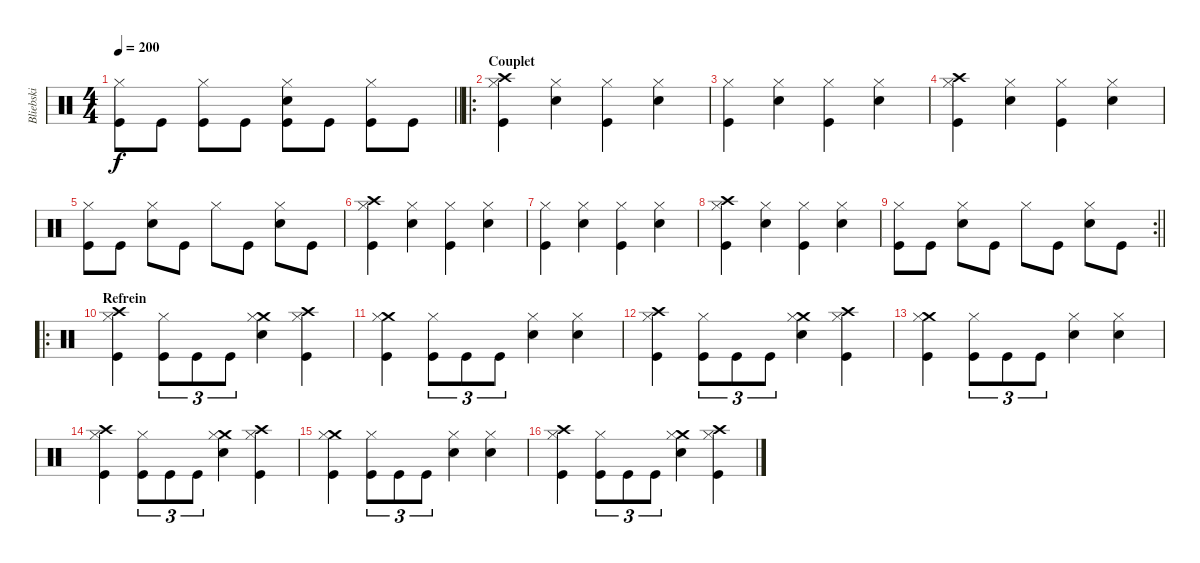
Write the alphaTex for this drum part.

\track ("Bliebski" "Bliebski") {instrument percussion}
\staff {score}
\articulation defaults
\ts (4 4)
\tempo 200
\clef neutral
\barLineRight lightlight
\ks c
("Hi-Hat (closed)" "Kick (hit)").8{dy f} "Kick (hit)".8 ("Hi-Hat (closed)" "Kick (hit)").8 "Kick (hit)".8 ("Hi-Hat (closed)" "Kick (hit)" "Snare (hit) 2").8 "Kick (hit)".8 ("Hi-Hat (closed)" "Kick (hit)").8 "Kick (hit)".8 |
\ro
\section ("" "Couplet")
("Crash high (hit)" "Hi-Hat (closed)" "Kick (hit)").4 ("Hi-Hat (closed)" "Snare (hit) 2").4 ("Hi-Hat (closed)" "Kick (hit)").4 ("Hi-Hat (closed)" "Snare (hit) 2").4 |
("Hi-Hat (closed)" "Kick (hit)").4 ("Hi-Hat (closed)" "Snare (hit) 2").4 ("Hi-Hat (closed)" "Kick (hit)").4 ("Hi-Hat (closed)" "Snare (hit) 2").4 |
("Crash high (hit)" "Hi-Hat (closed)" "Kick (hit)").4 ("Hi-Hat (closed)" "Snare (hit) 2").4 ("Hi-Hat (closed)" "Kick (hit)").4 ("Hi-Hat (closed)" "Snare (hit) 2").4 |
("Hi-Hat (closed)" "Kick (hit)").8 "Kick (hit)".8 ("Hi-Hat (closed)" "Snare (hit) 2").8 "Kick (hit)".8 "Hi-Hat (closed)".8 "Kick (hit)".8 ("Hi-Hat (closed)" "Snare (hit) 2").8 "Kick (hit)".8 |
("Crash high (hit)" "Hi-Hat (closed)" "Kick (hit)").4 ("Hi-Hat (closed)" "Snare (hit) 2").4 ("Hi-Hat (closed)" "Kick (hit)").4 ("Hi-Hat (closed)" "Snare (hit) 2").4 |
("Hi-Hat (closed)" "Kick (hit)").4 ("Hi-Hat (closed)" "Snare (hit) 2").4 ("Hi-Hat (closed)" "Kick (hit)").4 ("Hi-Hat (closed)" "Snare (hit) 2").4 |
("Crash high (hit)" "Hi-Hat (closed)" "Kick (hit)").4 ("Hi-Hat (closed)" "Snare (hit) 2").4 ("Hi-Hat (closed)" "Kick (hit)").4 ("Hi-Hat (closed)" "Snare (hit) 2").4 |
\rc 2
\barLineRight lightlight
("Hi-Hat (closed)" "Kick (hit)").8 "Kick (hit)".8 ("Hi-Hat (closed)" "Snare (hit) 2").8 "Kick (hit)".8 "Hi-Hat (closed)".8 "Kick (hit)".8 ("Hi-Hat (closed)" "Snare (hit) 2").8 "Kick (hit)".8 |
\ro
\section ("" "Refrein")
("Crash high (hit)" "Hi-Hat (closed)" "Kick (hit)").4 ("Hi-Hat (closed)" "Kick (hit)").8{tu (3 2)} "Kick (hit)".8{tu (3 2)} "Kick (hit)".8{tu (3 2)} ("Crash medium (hit)" "Hi-Hat (closed)" "Snare (hit) 2").4 ("Crash high (hit)" "Hi-Hat (closed)" "Kick (hit)").4 |
("Crash medium (hit)" "Hi-Hat (closed)" "Kick (hit)").4 ("Hi-Hat (closed)" "Kick (hit)").8{tu (3 2)} "Kick (hit)".8{tu (3 2)} "Kick (hit)".8{tu (3 2)} ("Hi-Hat (closed)" "Snare (hit) 2").4 ("Hi-Hat (closed)" "Snare (hit) 2").4 |
("Crash high (hit)" "Hi-Hat (closed)" "Kick (hit)").4 ("Hi-Hat (closed)" "Kick (hit)").8{tu (3 2)} "Kick (hit)".8{tu (3 2)} "Kick (hit)".8{tu (3 2)} ("Crash medium (hit)" "Hi-Hat (closed)" "Snare (hit) 2").4 ("Crash high (hit)" "Hi-Hat (closed)" "Kick (hit)").4 |
("Crash medium (hit)" "Hi-Hat (closed)" "Kick (hit)").4 ("Hi-Hat (closed)" "Kick (hit)").8{tu (3 2)} "Kick (hit)".8{tu (3 2)} "Kick (hit)".8{tu (3 2)} ("Hi-Hat (closed)" "Snare (hit) 2").4 ("Hi-Hat (closed)" "Snare (hit) 2").4 |
("Crash high (hit)" "Hi-Hat (closed)" "Kick (hit)").4 ("Hi-Hat (closed)" "Kick (hit)").8{tu (3 2)} "Kick (hit)".8{tu (3 2)} "Kick (hit)".8{tu (3 2)} ("Crash medium (hit)" "Hi-Hat (closed)" "Snare (hit) 2").4 ("Crash high (hit)" "Hi-Hat (closed)" "Kick (hit)").4 |
("Crash medium (hit)" "Hi-Hat (closed)" "Kick (hit)").4 ("Hi-Hat (closed)" "Kick (hit)").8{tu (3 2)} "Kick (hit)".8{tu (3 2)} "Kick (hit)".8{tu (3 2)} ("Hi-Hat (closed)" "Snare (hit) 2").4 ("Hi-Hat (closed)" "Snare (hit) 2").4 |
("Crash high (hit)" "Hi-Hat (closed)" "Kick (hit)").4 ("Hi-Hat (closed)" "Kick (hit)").8{tu (3 2)} "Kick (hit)".8{tu (3 2)} "Kick (hit)".8{tu (3 2)} ("Crash medium (hit)" "Hi-Hat (closed)" "Snare (hit) 2").4 ("Crash high (hit)" "Hi-Hat (closed)" "Kick (hit)").4
